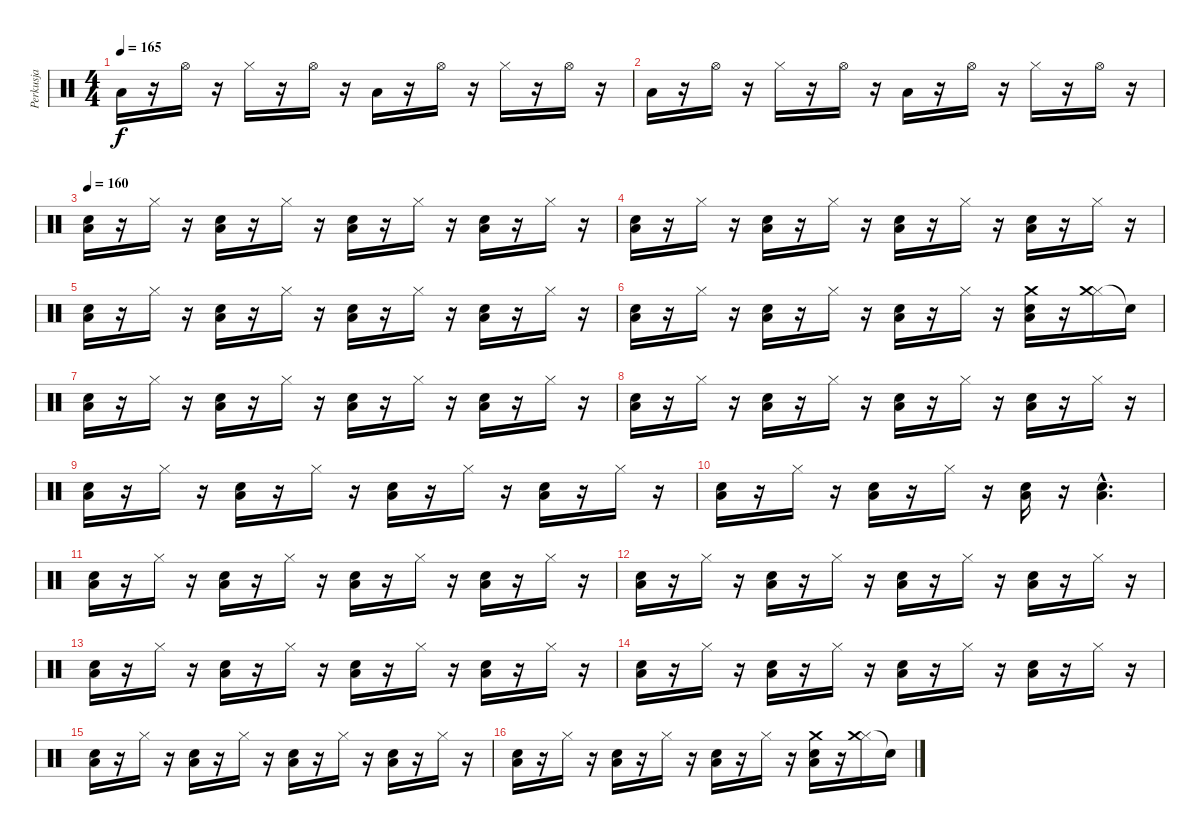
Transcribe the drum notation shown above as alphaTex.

\track ("Perkusja" "Perkusja") {instrument percussion}
\staff {score}
\articulation defaults
\ts (4 4)
\tempo 165
\tempo 80
\tempo 165
\clef neutral
\ks c "Low Tom (hit)".16{dy f}
r.16 "Hi-Hat (open)".16 r.16 "Hi-Hat (closed)".16 r.16 "Hi-Hat (open)".16 r.16 "Low Tom (hit)".16 r.16 "Hi-Hat (open)".16 r.16 "Hi-Hat (closed)".16 r.16 "Hi-Hat (open)".16 r.16 |
"Low Tom (hit)".16 r.16 "Hi-Hat (open)".16 r.16 "Hi-Hat (closed)".16 r.16 "Hi-Hat (open)".16 r.16 "Low Tom (hit)".16 r.16 "Hi-Hat (open)".16 r.16 "Hi-Hat (closed)".16 r.16 "Hi-Hat (open)".16 r.16 |
\tempo 165
\tempo 160
("Snare (hit) 2" "Low Tom (hit)").16 r.16 "Hi-Hat (closed)".16 r.16 ("Snare (hit) 2" "Low Tom (hit)").16 r.16 "Hi-Hat (closed)".16 r.16 ("Snare (hit) 2" "Low Tom (hit)").16 r.16 "Hi-Hat (closed)".16 r.16 ("Snare (hit) 2" "Low Tom (hit)").16 r.16 "Hi-Hat (closed)".16 r.16 |
("Snare (hit) 2" "Low Tom (hit)").16 r.16 "Hi-Hat (closed)".16 r.16 ("Snare (hit) 2" "Low Tom (hit)").16 r.16 "Hi-Hat (closed)".16 r.16 ("Snare (hit) 2" "Low Tom (hit)").16 r.16 "Hi-Hat (closed)".16 r.16 ("Snare (hit) 2" "Low Tom (hit)").16 r.16 "Hi-Hat (closed)".16 r.16 |
("Snare (hit) 2" "Low Tom (hit)").16 r.16 "Hi-Hat (closed)".16 r.16 ("Snare (hit) 2" "Low Tom (hit)").16 r.16 "Hi-Hat (closed)".16 r.16 ("Snare (hit) 2" "Low Tom (hit)").16 r.16 "Hi-Hat (closed)".16 r.16 ("Snare (hit) 2" "Low Tom (hit)").16 r.16 "Hi-Hat (closed)".16 r.16 |
("Snare (hit) 2" "Low Tom (hit)").16 r.16 "Hi-Hat (closed)".16 r.16 ("Snare (hit) 2" "Low Tom (hit)").16 r.16 "Hi-Hat (closed)".16 r.16 ("Snare (hit) 2" "Low Tom (hit)").16 r.16 "Hi-Hat (closed)".16 r.16 ("Snare (hit) 2" "Low Tom (hit)" "Crash medium (hit)").16 r.16 ("Hi-Hat (closed)" "Crash medium (hit)").16 "Snare (hit)"{t}.16 |
("Snare (hit) 2" "Low Tom (hit)").16 r.16 "Hi-Hat (closed)".16 r.16 ("Snare (hit) 2" "Low Tom (hit)").16 r.16 "Hi-Hat (closed)".16 r.16 ("Snare (hit) 2" "Low Tom (hit)").16 r.16 "Hi-Hat (closed)".16 r.16 ("Snare (hit) 2" "Low Tom (hit)").16 r.16 "Hi-Hat (closed)".16 r.16 |
("Snare (hit) 2" "Low Tom (hit)").16 r.16 "Hi-Hat (closed)".16 r.16 ("Snare (hit) 2" "Low Tom (hit)").16 r.16 "Hi-Hat (closed)".16 r.16 ("Snare (hit) 2" "Low Tom (hit)").16 r.16 "Hi-Hat (closed)".16 r.16 ("Snare (hit) 2" "Low Tom (hit)").16 r.16 "Hi-Hat (closed)".16 r.16 |
("Snare (hit) 2" "Low Tom (hit)").16 r.16 "Hi-Hat (closed)".16 r.16 ("Snare (hit) 2" "Low Tom (hit)").16 r.16 "Hi-Hat (closed)".16 r.16 ("Snare (hit) 2" "Low Tom (hit)").16 r.16 "Hi-Hat (closed)".16 r.16 ("Snare (hit) 2" "Low Tom (hit)").16 r.16 "Hi-Hat (closed)".16 r.16 |
("Snare (hit) 2" "Low Tom (hit)").16 r.16 "Hi-Hat (closed)".16 r.16 ("Snare (hit) 2" "Low Tom (hit)").16 r.16 "Hi-Hat (closed)".16 r.16 ("Snare (hit) 2" "Low Tom (hit)").16 r.16 ("Snare (hit) 2"{hac} "Low Tom (hit)"{hac}).4{d} |
("Snare (hit) 2" "Low Tom (hit)").16 r.16 "Hi-Hat (closed)".16 r.16 ("Snare (hit) 2" "Low Tom (hit)").16 r.16 "Hi-Hat (closed)".16 r.16 ("Snare (hit) 2" "Low Tom (hit)").16 r.16 "Hi-Hat (closed)".16 r.16 ("Snare (hit) 2" "Low Tom (hit)").16 r.16 "Hi-Hat (closed)".16 r.16 |
("Snare (hit) 2" "Low Tom (hit)").16 r.16 "Hi-Hat (closed)".16 r.16 ("Snare (hit) 2" "Low Tom (hit)").16 r.16 "Hi-Hat (closed)".16 r.16 ("Snare (hit) 2" "Low Tom (hit)").16 r.16 "Hi-Hat (closed)".16 r.16 ("Snare (hit) 2" "Low Tom (hit)").16 r.16 "Hi-Hat (closed)".16 r.16 |
("Snare (hit) 2" "Low Tom (hit)").16 r.16 "Hi-Hat (closed)".16 r.16 ("Snare (hit) 2" "Low Tom (hit)").16 r.16 "Hi-Hat (closed)".16 r.16 ("Snare (hit) 2" "Low Tom (hit)").16 r.16 "Hi-Hat (closed)".16 r.16 ("Snare (hit) 2" "Low Tom (hit)").16 r.16 "Hi-Hat (closed)".16 r.16 |
("Snare (hit) 2" "Low Tom (hit)").16 r.16 "Hi-Hat (closed)".16 r.16 ("Snare (hit) 2" "Low Tom (hit)").16 r.16 "Hi-Hat (closed)".16 r.16 ("Snare (hit) 2" "Low Tom (hit)").16 r.16 "Hi-Hat (closed)".16 r.16 ("Snare (hit) 2" "Low Tom (hit)").16 r.16 "Hi-Hat (closed)".16 r.16 |
("Snare (hit) 2" "Low Tom (hit)").16 r.16 "Hi-Hat (closed)".16 r.16 ("Snare (hit) 2" "Low Tom (hit)").16 r.16 "Hi-Hat (closed)".16 r.16 ("Snare (hit) 2" "Low Tom (hit)").16 r.16 "Hi-Hat (closed)".16 r.16 ("Snare (hit) 2" "Low Tom (hit)").16 r.16 "Hi-Hat (closed)".16 r.16 |
("Snare (hit) 2" "Low Tom (hit)").16 r.16 "Hi-Hat (closed)".16 r.16 ("Snare (hit) 2" "Low Tom (hit)").16 r.16 "Hi-Hat (closed)".16 r.16 ("Snare (hit) 2" "Low Tom (hit)").16 r.16 "Hi-Hat (closed)".16 r.16 ("Snare (hit) 2" "Low Tom (hit)" "Crash medium (hit)").16 r.16 ("Hi-Hat (closed)" "Crash medium (hit)").16 "Snare (hit)"{t}.16
